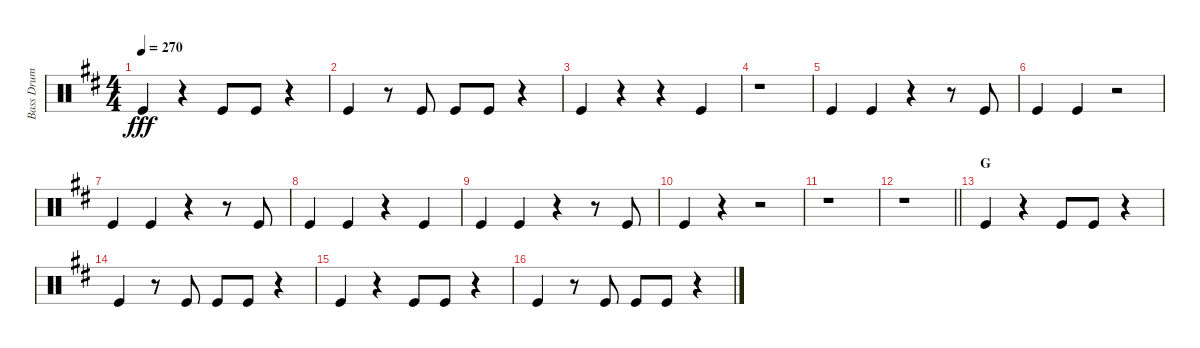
\track ("Bass Drum" "Bass Drum") {instrument percussion}
\staff {score}
\articulation defaults
\ts (4 4)
\tempo 270
\clef neutral
\ks d "Kick (hit)".4{dy fff}
r.4 "Kick (hit)".8 "Kick (hit)".8 r.4 |
"Kick (hit)".4 r.8 "Kick (hit)".8 "Kick (hit)".8 "Kick (hit)".8 r.4 |
"Kick (hit)".4 r.4 r.4 "Kick (hit)".4 |
r.1 |
"Kick (hit)".4 "Kick (hit)".4 r.4 r.8 "Kick (hit)".8 |
"Kick (hit)".4 "Kick (hit)".4 r.2 |
"Kick (hit)".4 "Kick (hit)".4 r.4 r.8 "Kick (hit)".8 |
"Kick (hit)".4 "Kick (hit)".4 r.4 "Kick (hit)".4 |
"Kick (hit)".4 "Kick (hit)".4 r.4 r.8 "Kick (hit)".8 |
"Kick (hit)".4 r.4 r.2 |
r.1 |
\barLineRight lightlight
r.1 |
\section ("" "G")
"Kick (hit)".4 r.4 "Kick (hit)".8 "Kick (hit)".8 r.4 |
"Kick (hit)".4 r.8 "Kick (hit)".8 "Kick (hit)".8 "Kick (hit)".8 r.4 |
"Kick (hit)".4 r.4 "Kick (hit)".8 "Kick (hit)".8 r.4 |
"Kick (hit)".4 r.8 "Kick (hit)".8 "Kick (hit)".8 "Kick (hit)".8 r.4
